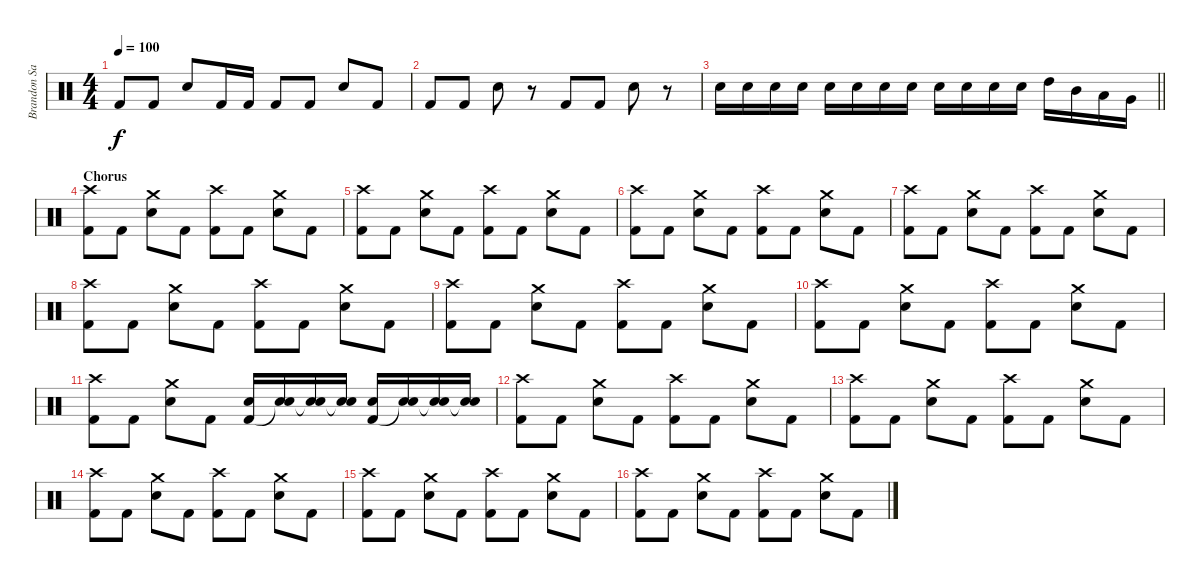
\track ("Brandon Saller" "Brandon Sa") {instrument percussion}
\staff {score}
\articulation defaults
\ts (4 4)
\tempo 100
\clef neutral
\ks c "Kick (hit) 2".8{dy f} "Kick (hit) 2".8 "Electric Snare (hit)".8 "Kick (hit) 2".16 "Kick (hit) 2".16 "Kick (hit) 2".8 "Kick (hit) 2".8 "Electric Snare (hit)".8 "Kick (hit) 2".8
|
"Kick (hit) 2".8 "Kick (hit) 2".8 "Electric Snare (hit)".8 r.8 "Kick (hit) 2".8 "Kick (hit) 2".8 "Electric Snare (hit)".8 r.8 |
\barLineRight lightlight "Electric Snare (hit)".16 "Electric Snare (hit)".16 "Electric Snare (hit)".16 "Electric Snare (hit)".16 "Electric Snare (hit)".16 "Electric Snare (hit)".16 "Electric Snare (hit)".16 "Electric Snare (hit)".16 "Electric Snare (hit)".16 "Electric Snare (hit)".16 "Electric Snare (hit)".16 "Electric Snare (hit)".16 "High Tom (hit)".16 "Mid Tom (hit)".16 "Low Tom (hit)".16 "Very Low Tom (hit)".16
|
\section ("" "Chorus")
("Crash high (hit)" "Kick (hit) 2").8 "Kick (hit) 2".8 ("Crash medium (hit)" "Electric Snare (hit)").8 "Kick (hit) 2".8 ("Crash high (hit)" "Kick (hit) 2").8 "Kick (hit) 2".8 ("Crash medium (hit)" "Electric Snare (hit)").8 "Kick (hit) 2".8 |
("Crash high (hit)" "Kick (hit) 2").8 "Kick (hit) 2".8 ("Crash medium (hit)" "Electric Snare (hit)").8 "Kick (hit) 2".8 ("Crash high (hit)" "Kick (hit) 2").8 "Kick (hit) 2".8 ("Crash medium (hit)" "Electric Snare (hit)").8 "Kick (hit) 2".8 |
("Crash high (hit)" "Kick (hit) 2").8 "Kick (hit) 2".8 ("Crash medium (hit)" "Electric Snare (hit)").8 "Kick (hit) 2".8 ("Crash high (hit)" "Kick (hit) 2").8 "Kick (hit) 2".8 ("Crash medium (hit)" "Electric Snare (hit)").8 "Kick (hit) 2".8 |
("Crash high (hit)" "Kick (hit) 2").8 "Kick (hit) 2".8 ("Crash medium (hit)" "Electric Snare (hit)").8 "Kick (hit) 2".8 ("Crash high (hit)" "Kick (hit) 2").8 "Kick (hit) 2".8 ("Crash medium (hit)" "Electric Snare (hit)").8 "Kick (hit) 2".8 |
("Crash high (hit)" "Kick (hit) 2").8 "Kick (hit) 2".8 ("Crash medium (hit)" "Electric Snare (hit)").8 "Kick (hit) 2".8 ("Crash high (hit)" "Kick (hit) 2").8 "Kick (hit) 2".8 ("Crash medium (hit)" "Electric Snare (hit)").8 "Kick (hit) 2".8 |
("Crash high (hit)" "Kick (hit) 2").8 "Kick (hit) 2".8 ("Crash medium (hit)" "Electric Snare (hit)").8 "Kick (hit) 2".8 ("Crash high (hit)" "Kick (hit) 2").8 "Kick (hit) 2".8 ("Crash medium (hit)" "Electric Snare (hit)").8 "Kick (hit) 2".8 |
("Crash high (hit)" "Kick (hit) 2").8 "Kick (hit) 2".8 ("Crash medium (hit)" "Electric Snare (hit)").8 "Kick (hit) 2".8 ("Crash high (hit)" "Kick (hit) 2").8 "Kick (hit) 2".8 ("Crash medium (hit)" "Electric Snare (hit)").8 "Kick (hit) 2".8 |
("Crash high (hit)" "Kick (hit) 2").8 "Kick (hit) 2".8 ("Crash medium (hit)" "Electric Snare (hit)").8 "Kick (hit) 2".8 ("Snare (hit) 2" "Kick (hit) 2").16 ("Snare (hit) 2" "Snare (hit)"{t}).16 ("Snare (hit) 2" "Snare (hit)"{t}).16 ("Snare (hit) 2" "Snare (hit)"{t}).16 ("Snare (hit) 2" "Kick (hit) 2").16 ("Snare (hit) 2" "Snare (hit)"{t}).16 ("Snare (hit) 2" "Snare (hit)"{t}).16 ("Snare (hit) 2" "Snare (hit)"{t}).16 |
("Crash high (hit)" "Kick (hit) 2").8 "Kick (hit) 2".8 ("Crash medium (hit)" "Electric Snare (hit)").8 "Kick (hit) 2".8 ("Crash high (hit)" "Kick (hit) 2").8 "Kick (hit) 2".8 ("Crash medium (hit)" "Electric Snare (hit)").8 "Kick (hit) 2".8 |
("Crash high (hit)" "Kick (hit) 2").8 "Kick (hit) 2".8 ("Crash medium (hit)" "Electric Snare (hit)").8 "Kick (hit) 2".8 ("Crash high (hit)" "Kick (hit) 2").8 "Kick (hit) 2".8 ("Crash medium (hit)" "Electric Snare (hit)").8 "Kick (hit) 2".8 |
("Crash high (hit)" "Kick (hit) 2").8 "Kick (hit) 2".8 ("Crash medium (hit)" "Electric Snare (hit)").8 "Kick (hit) 2".8 ("Crash high (hit)" "Kick (hit) 2").8 "Kick (hit) 2".8 ("Crash medium (hit)" "Electric Snare (hit)").8 "Kick (hit) 2".8 |
("Crash high (hit)" "Kick (hit) 2").8 "Kick (hit) 2".8 ("Crash medium (hit)" "Electric Snare (hit)").8 "Kick (hit) 2".8 ("Crash high (hit)" "Kick (hit) 2").8 "Kick (hit) 2".8 ("Crash medium (hit)" "Electric Snare (hit)").8 "Kick (hit) 2".8 |
("Crash high (hit)" "Kick (hit) 2").8 "Kick (hit) 2".8 ("Crash medium (hit)" "Electric Snare (hit)").8 "Kick (hit) 2".8 ("Crash high (hit)" "Kick (hit) 2").8 "Kick (hit) 2".8 ("Crash medium (hit)" "Electric Snare (hit)").8 "Kick (hit) 2".8
